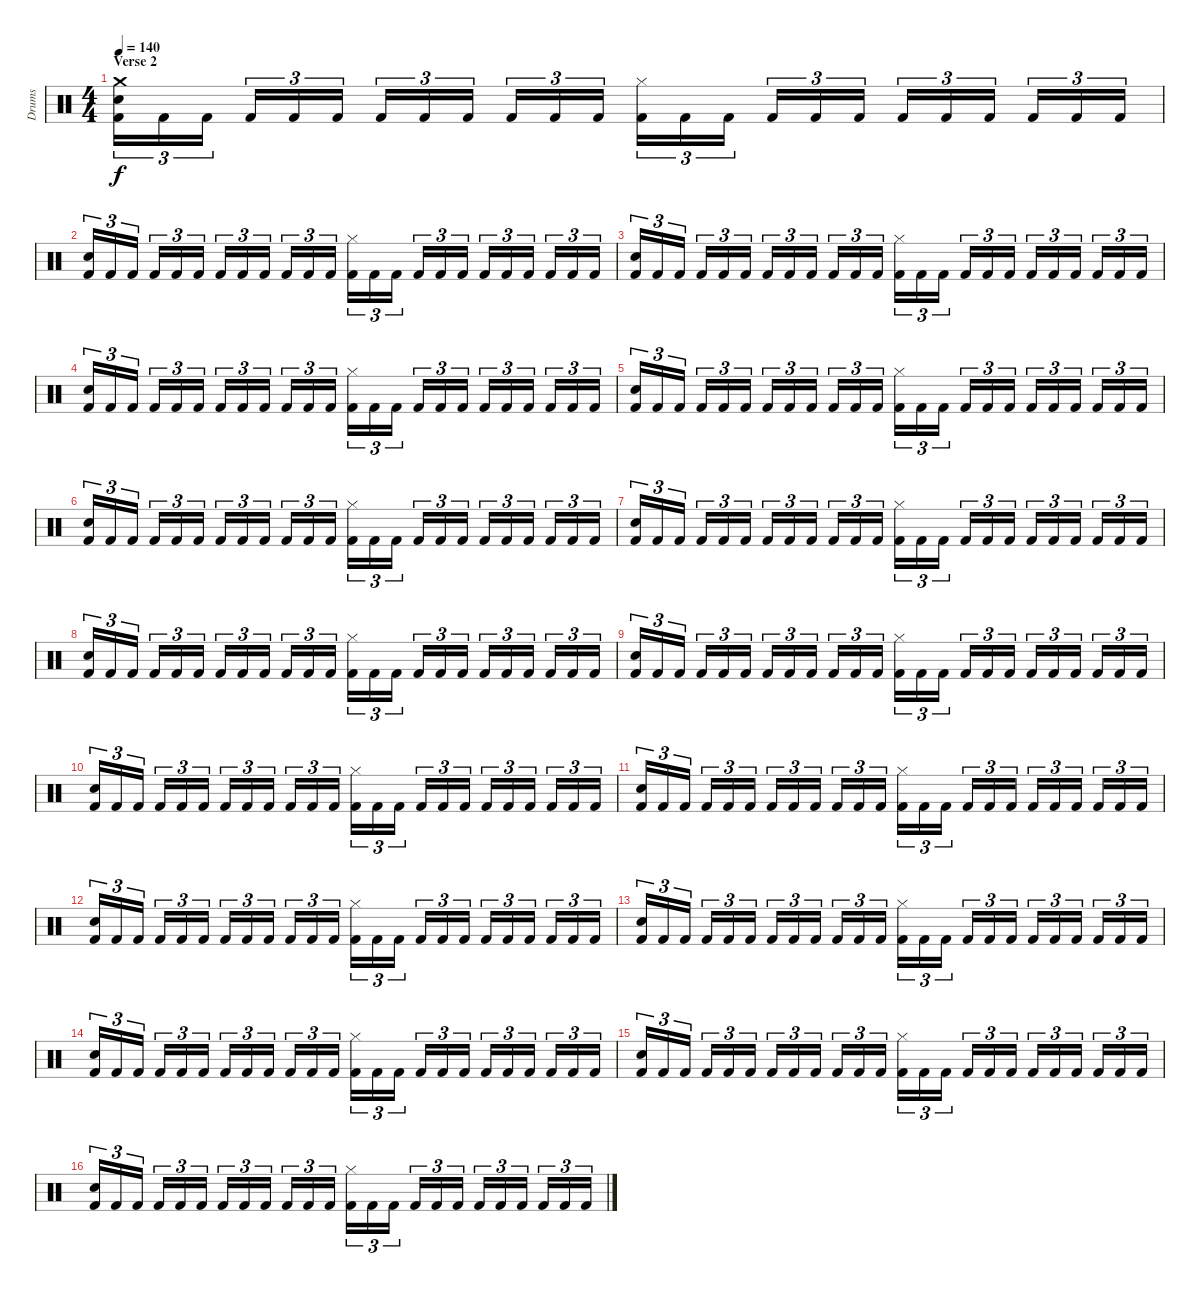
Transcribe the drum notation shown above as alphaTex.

\track ("Drums" "Drums") {instrument percussion}
\staff {score}
\articulation defaults
\ts (4 4)
\section ("" "Verse 2")
\tempo 140
\clef neutral
\ks c
("Crash medium (hit)" "Snare (hit) 2" "Kick (hit) 2").16{tu (3 2) dy f} "Kick (hit) 2".16{tu (3 2)} "Kick (hit) 2".16{tu (3 2)} "Kick (hit) 2".16{tu (3 2)} "Kick (hit) 2".16{tu (3 2)} "Kick (hit) 2".16{tu (3 2)} "Kick (hit) 2".16{tu (3 2)} "Kick (hit) 2".16{tu (3 2)} "Kick (hit) 2".16{tu (3 2)} "Kick (hit) 2".16{tu (3 2)} "Kick (hit) 2".16{tu (3 2)} "Kick (hit) 2".16{tu (3 2)} ("Hi-Hat (closed)" "Kick (hit) 2").16{tu (3 2)} "Kick (hit) 2".16{tu (3 2)} "Kick (hit) 2".16{tu (3 2)} "Kick (hit) 2".16{tu (3 2)} "Kick (hit) 2".16{tu (3 2)} "Kick (hit) 2".16{tu (3 2)} "Kick (hit) 2".16{tu (3 2)} "Kick (hit) 2".16{tu (3 2)} "Kick (hit) 2".16{tu (3 2)} "Kick (hit) 2".16{tu (3 2)} "Kick (hit) 2".16{tu (3 2)} "Kick (hit) 2".16{tu (3 2)} |
("Snare (hit) 2" "Kick (hit) 2").16{tu (3 2)} "Kick (hit) 2".16{tu (3 2)} "Kick (hit) 2".16{tu (3 2)} "Kick (hit) 2".16{tu (3 2)} "Kick (hit) 2".16{tu (3 2)} "Kick (hit) 2".16{tu (3 2)} "Kick (hit) 2".16{tu (3 2)} "Kick (hit) 2".16{tu (3 2)} "Kick (hit) 2".16{tu (3 2)} "Kick (hit) 2".16{tu (3 2)} "Kick (hit) 2".16{tu (3 2)} "Kick (hit) 2".16{tu (3 2)} ("Hi-Hat (closed)" "Kick (hit) 2").16{tu (3 2)} "Kick (hit) 2".16{tu (3 2)} "Kick (hit) 2".16{tu (3 2)} "Kick (hit) 2".16{tu (3 2)} "Kick (hit) 2".16{tu (3 2)} "Kick (hit) 2".16{tu (3 2)} "Kick (hit) 2".16{tu (3 2)} "Kick (hit) 2".16{tu (3 2)} "Kick (hit) 2".16{tu (3 2)} "Kick (hit) 2".16{tu (3 2)} "Kick (hit) 2".16{tu (3 2)} "Kick (hit) 2".16{tu (3 2)} |
("Snare (hit) 2" "Kick (hit) 2").16{tu (3 2)} "Kick (hit) 2".16{tu (3 2)} "Kick (hit) 2".16{tu (3 2)} "Kick (hit) 2".16{tu (3 2)} "Kick (hit) 2".16{tu (3 2)} "Kick (hit) 2".16{tu (3 2)} "Kick (hit) 2".16{tu (3 2)} "Kick (hit) 2".16{tu (3 2)} "Kick (hit) 2".16{tu (3 2)} "Kick (hit) 2".16{tu (3 2)} "Kick (hit) 2".16{tu (3 2)} "Kick (hit) 2".16{tu (3 2)} ("Hi-Hat (closed)" "Kick (hit) 2").16{tu (3 2)} "Kick (hit) 2".16{tu (3 2)} "Kick (hit) 2".16{tu (3 2)} "Kick (hit) 2".16{tu (3 2)} "Kick (hit) 2".16{tu (3 2)} "Kick (hit) 2".16{tu (3 2)} "Kick (hit) 2".16{tu (3 2)} "Kick (hit) 2".16{tu (3 2)} "Kick (hit) 2".16{tu (3 2)} "Kick (hit) 2".16{tu (3 2)} "Kick (hit) 2".16{tu (3 2)} "Kick (hit) 2".16{tu (3 2)} |
("Snare (hit) 2" "Kick (hit) 2").16{tu (3 2)} "Kick (hit) 2".16{tu (3 2)} "Kick (hit) 2".16{tu (3 2)} "Kick (hit) 2".16{tu (3 2)} "Kick (hit) 2".16{tu (3 2)} "Kick (hit) 2".16{tu (3 2)} "Kick (hit) 2".16{tu (3 2)} "Kick (hit) 2".16{tu (3 2)} "Kick (hit) 2".16{tu (3 2)} "Kick (hit) 2".16{tu (3 2)} "Kick (hit) 2".16{tu (3 2)} "Kick (hit) 2".16{tu (3 2)} ("Hi-Hat (closed)" "Kick (hit) 2").16{tu (3 2)} "Kick (hit) 2".16{tu (3 2)} "Kick (hit) 2".16{tu (3 2)} "Kick (hit) 2".16{tu (3 2)} "Kick (hit) 2".16{tu (3 2)} "Kick (hit) 2".16{tu (3 2)} "Kick (hit) 2".16{tu (3 2)} "Kick (hit) 2".16{tu (3 2)} "Kick (hit) 2".16{tu (3 2)} "Kick (hit) 2".16{tu (3 2)} "Kick (hit) 2".16{tu (3 2)} "Kick (hit) 2".16{tu (3 2)} |
("Snare (hit) 2" "Kick (hit) 2").16{tu (3 2)} "Kick (hit) 2".16{tu (3 2)} "Kick (hit) 2".16{tu (3 2)} "Kick (hit) 2".16{tu (3 2)} "Kick (hit) 2".16{tu (3 2)} "Kick (hit) 2".16{tu (3 2)} "Kick (hit) 2".16{tu (3 2)} "Kick (hit) 2".16{tu (3 2)} "Kick (hit) 2".16{tu (3 2)} "Kick (hit) 2".16{tu (3 2)} "Kick (hit) 2".16{tu (3 2)} "Kick (hit) 2".16{tu (3 2)} ("Hi-Hat (closed)" "Kick (hit) 2").16{tu (3 2)} "Kick (hit) 2".16{tu (3 2)} "Kick (hit) 2".16{tu (3 2)} "Kick (hit) 2".16{tu (3 2)} "Kick (hit) 2".16{tu (3 2)} "Kick (hit) 2".16{tu (3 2)} "Kick (hit) 2".16{tu (3 2)} "Kick (hit) 2".16{tu (3 2)} "Kick (hit) 2".16{tu (3 2)} "Kick (hit) 2".16{tu (3 2)} "Kick (hit) 2".16{tu (3 2)} "Kick (hit) 2".16{tu (3 2)} |
("Snare (hit) 2" "Kick (hit) 2").16{tu (3 2)} "Kick (hit) 2".16{tu (3 2)} "Kick (hit) 2".16{tu (3 2)} "Kick (hit) 2".16{tu (3 2)} "Kick (hit) 2".16{tu (3 2)} "Kick (hit) 2".16{tu (3 2)} "Kick (hit) 2".16{tu (3 2)} "Kick (hit) 2".16{tu (3 2)} "Kick (hit) 2".16{tu (3 2)} "Kick (hit) 2".16{tu (3 2)} "Kick (hit) 2".16{tu (3 2)} "Kick (hit) 2".16{tu (3 2)} ("Hi-Hat (closed)" "Kick (hit) 2").16{tu (3 2)} "Kick (hit) 2".16{tu (3 2)} "Kick (hit) 2".16{tu (3 2)} "Kick (hit) 2".16{tu (3 2)} "Kick (hit) 2".16{tu (3 2)} "Kick (hit) 2".16{tu (3 2)} "Kick (hit) 2".16{tu (3 2)} "Kick (hit) 2".16{tu (3 2)} "Kick (hit) 2".16{tu (3 2)} "Kick (hit) 2".16{tu (3 2)} "Kick (hit) 2".16{tu (3 2)} "Kick (hit) 2".16{tu (3 2)} |
("Snare (hit) 2" "Kick (hit) 2").16{tu (3 2)} "Kick (hit) 2".16{tu (3 2)} "Kick (hit) 2".16{tu (3 2)} "Kick (hit) 2".16{tu (3 2)} "Kick (hit) 2".16{tu (3 2)} "Kick (hit) 2".16{tu (3 2)} "Kick (hit) 2".16{tu (3 2)} "Kick (hit) 2".16{tu (3 2)} "Kick (hit) 2".16{tu (3 2)} "Kick (hit) 2".16{tu (3 2)} "Kick (hit) 2".16{tu (3 2)} "Kick (hit) 2".16{tu (3 2)} ("Hi-Hat (closed)" "Kick (hit) 2").16{tu (3 2)} "Kick (hit) 2".16{tu (3 2)} "Kick (hit) 2".16{tu (3 2)} "Kick (hit) 2".16{tu (3 2)} "Kick (hit) 2".16{tu (3 2)} "Kick (hit) 2".16{tu (3 2)} "Kick (hit) 2".16{tu (3 2)} "Kick (hit) 2".16{tu (3 2)} "Kick (hit) 2".16{tu (3 2)} "Kick (hit) 2".16{tu (3 2)} "Kick (hit) 2".16{tu (3 2)} "Kick (hit) 2".16{tu (3 2)} |
("Snare (hit) 2" "Kick (hit) 2").16{tu (3 2)} "Kick (hit) 2".16{tu (3 2)} "Kick (hit) 2".16{tu (3 2)} "Kick (hit) 2".16{tu (3 2)} "Kick (hit) 2".16{tu (3 2)} "Kick (hit) 2".16{tu (3 2)} "Kick (hit) 2".16{tu (3 2)} "Kick (hit) 2".16{tu (3 2)} "Kick (hit) 2".16{tu (3 2)} "Kick (hit) 2".16{tu (3 2)} "Kick (hit) 2".16{tu (3 2)} "Kick (hit) 2".16{tu (3 2)} ("Hi-Hat (closed)" "Kick (hit) 2").16{tu (3 2)} "Kick (hit) 2".16{tu (3 2)} "Kick (hit) 2".16{tu (3 2)} "Kick (hit) 2".16{tu (3 2)} "Kick (hit) 2".16{tu (3 2)} "Kick (hit) 2".16{tu (3 2)} "Kick (hit) 2".16{tu (3 2)} "Kick (hit) 2".16{tu (3 2)} "Kick (hit) 2".16{tu (3 2)} "Kick (hit) 2".16{tu (3 2)} "Kick (hit) 2".16{tu (3 2)} "Kick (hit) 2".16{tu (3 2)} |
("Snare (hit) 2" "Kick (hit) 2").16{tu (3 2)} "Kick (hit) 2".16{tu (3 2)} "Kick (hit) 2".16{tu (3 2)} "Kick (hit) 2".16{tu (3 2)} "Kick (hit) 2".16{tu (3 2)} "Kick (hit) 2".16{tu (3 2)} "Kick (hit) 2".16{tu (3 2)} "Kick (hit) 2".16{tu (3 2)} "Kick (hit) 2".16{tu (3 2)} "Kick (hit) 2".16{tu (3 2)} "Kick (hit) 2".16{tu (3 2)} "Kick (hit) 2".16{tu (3 2)} ("Hi-Hat (closed)" "Kick (hit) 2").16{tu (3 2)} "Kick (hit) 2".16{tu (3 2)} "Kick (hit) 2".16{tu (3 2)} "Kick (hit) 2".16{tu (3 2)} "Kick (hit) 2".16{tu (3 2)} "Kick (hit) 2".16{tu (3 2)} "Kick (hit) 2".16{tu (3 2)} "Kick (hit) 2".16{tu (3 2)} "Kick (hit) 2".16{tu (3 2)} "Kick (hit) 2".16{tu (3 2)} "Kick (hit) 2".16{tu (3 2)} "Kick (hit) 2".16{tu (3 2)} |
("Snare (hit) 2" "Kick (hit) 2").16{tu (3 2)} "Kick (hit) 2".16{tu (3 2)} "Kick (hit) 2".16{tu (3 2)} "Kick (hit) 2".16{tu (3 2)} "Kick (hit) 2".16{tu (3 2)} "Kick (hit) 2".16{tu (3 2)} "Kick (hit) 2".16{tu (3 2)} "Kick (hit) 2".16{tu (3 2)} "Kick (hit) 2".16{tu (3 2)} "Kick (hit) 2".16{tu (3 2)} "Kick (hit) 2".16{tu (3 2)} "Kick (hit) 2".16{tu (3 2)} ("Hi-Hat (closed)" "Kick (hit) 2").16{tu (3 2)} "Kick (hit) 2".16{tu (3 2)} "Kick (hit) 2".16{tu (3 2)} "Kick (hit) 2".16{tu (3 2)} "Kick (hit) 2".16{tu (3 2)} "Kick (hit) 2".16{tu (3 2)} "Kick (hit) 2".16{tu (3 2)} "Kick (hit) 2".16{tu (3 2)} "Kick (hit) 2".16{tu (3 2)} "Kick (hit) 2".16{tu (3 2)} "Kick (hit) 2".16{tu (3 2)} "Kick (hit) 2".16{tu (3 2)} |
("Snare (hit) 2" "Kick (hit) 2").16{tu (3 2)} "Kick (hit) 2".16{tu (3 2)} "Kick (hit) 2".16{tu (3 2)} "Kick (hit) 2".16{tu (3 2)} "Kick (hit) 2".16{tu (3 2)} "Kick (hit) 2".16{tu (3 2)} "Kick (hit) 2".16{tu (3 2)} "Kick (hit) 2".16{tu (3 2)} "Kick (hit) 2".16{tu (3 2)} "Kick (hit) 2".16{tu (3 2)} "Kick (hit) 2".16{tu (3 2)} "Kick (hit) 2".16{tu (3 2)} ("Hi-Hat (closed)" "Kick (hit) 2").16{tu (3 2)} "Kick (hit) 2".16{tu (3 2)} "Kick (hit) 2".16{tu (3 2)} "Kick (hit) 2".16{tu (3 2)} "Kick (hit) 2".16{tu (3 2)} "Kick (hit) 2".16{tu (3 2)} "Kick (hit) 2".16{tu (3 2)} "Kick (hit) 2".16{tu (3 2)} "Kick (hit) 2".16{tu (3 2)} "Kick (hit) 2".16{tu (3 2)} "Kick (hit) 2".16{tu (3 2)} "Kick (hit) 2".16{tu (3 2)} |
("Snare (hit) 2" "Kick (hit) 2").16{tu (3 2)} "Kick (hit) 2".16{tu (3 2)} "Kick (hit) 2".16{tu (3 2)} "Kick (hit) 2".16{tu (3 2)} "Kick (hit) 2".16{tu (3 2)} "Kick (hit) 2".16{tu (3 2)} "Kick (hit) 2".16{tu (3 2)} "Kick (hit) 2".16{tu (3 2)} "Kick (hit) 2".16{tu (3 2)} "Kick (hit) 2".16{tu (3 2)} "Kick (hit) 2".16{tu (3 2)} "Kick (hit) 2".16{tu (3 2)} ("Hi-Hat (closed)" "Kick (hit) 2").16{tu (3 2)} "Kick (hit) 2".16{tu (3 2)} "Kick (hit) 2".16{tu (3 2)} "Kick (hit) 2".16{tu (3 2)} "Kick (hit) 2".16{tu (3 2)} "Kick (hit) 2".16{tu (3 2)} "Kick (hit) 2".16{tu (3 2)} "Kick (hit) 2".16{tu (3 2)} "Kick (hit) 2".16{tu (3 2)} "Kick (hit) 2".16{tu (3 2)} "Kick (hit) 2".16{tu (3 2)} "Kick (hit) 2".16{tu (3 2)} |
("Snare (hit) 2" "Kick (hit) 2").16{tu (3 2)} "Kick (hit) 2".16{tu (3 2)} "Kick (hit) 2".16{tu (3 2)} "Kick (hit) 2".16{tu (3 2)} "Kick (hit) 2".16{tu (3 2)} "Kick (hit) 2".16{tu (3 2)} "Kick (hit) 2".16{tu (3 2)} "Kick (hit) 2".16{tu (3 2)} "Kick (hit) 2".16{tu (3 2)} "Kick (hit) 2".16{tu (3 2)} "Kick (hit) 2".16{tu (3 2)} "Kick (hit) 2".16{tu (3 2)} ("Hi-Hat (closed)" "Kick (hit) 2").16{tu (3 2)} "Kick (hit) 2".16{tu (3 2)} "Kick (hit) 2".16{tu (3 2)} "Kick (hit) 2".16{tu (3 2)} "Kick (hit) 2".16{tu (3 2)} "Kick (hit) 2".16{tu (3 2)} "Kick (hit) 2".16{tu (3 2)} "Kick (hit) 2".16{tu (3 2)} "Kick (hit) 2".16{tu (3 2)} "Kick (hit) 2".16{tu (3 2)} "Kick (hit) 2".16{tu (3 2)} "Kick (hit) 2".16{tu (3 2)} |
("Snare (hit) 2" "Kick (hit) 2").16{tu (3 2)} "Kick (hit) 2".16{tu (3 2)} "Kick (hit) 2".16{tu (3 2)} "Kick (hit) 2".16{tu (3 2)} "Kick (hit) 2".16{tu (3 2)} "Kick (hit) 2".16{tu (3 2)} "Kick (hit) 2".16{tu (3 2)} "Kick (hit) 2".16{tu (3 2)} "Kick (hit) 2".16{tu (3 2)} "Kick (hit) 2".16{tu (3 2)} "Kick (hit) 2".16{tu (3 2)} "Kick (hit) 2".16{tu (3 2)} ("Hi-Hat (closed)" "Kick (hit) 2").16{tu (3 2)} "Kick (hit) 2".16{tu (3 2)} "Kick (hit) 2".16{tu (3 2)} "Kick (hit) 2".16{tu (3 2)} "Kick (hit) 2".16{tu (3 2)} "Kick (hit) 2".16{tu (3 2)} "Kick (hit) 2".16{tu (3 2)} "Kick (hit) 2".16{tu (3 2)} "Kick (hit) 2".16{tu (3 2)} "Kick (hit) 2".16{tu (3 2)} "Kick (hit) 2".16{tu (3 2)} "Kick (hit) 2".16{tu (3 2)} |
("Snare (hit) 2" "Kick (hit) 2").16{tu (3 2)} "Kick (hit) 2".16{tu (3 2)} "Kick (hit) 2".16{tu (3 2)} "Kick (hit) 2".16{tu (3 2)} "Kick (hit) 2".16{tu (3 2)} "Kick (hit) 2".16{tu (3 2)} "Kick (hit) 2".16{tu (3 2)} "Kick (hit) 2".16{tu (3 2)} "Kick (hit) 2".16{tu (3 2)} "Kick (hit) 2".16{tu (3 2)} "Kick (hit) 2".16{tu (3 2)} "Kick (hit) 2".16{tu (3 2)} ("Hi-Hat (closed)" "Kick (hit) 2").16{tu (3 2)} "Kick (hit) 2".16{tu (3 2)} "Kick (hit) 2".16{tu (3 2)} "Kick (hit) 2".16{tu (3 2)} "Kick (hit) 2".16{tu (3 2)} "Kick (hit) 2".16{tu (3 2)} "Kick (hit) 2".16{tu (3 2)} "Kick (hit) 2".16{tu (3 2)} "Kick (hit) 2".16{tu (3 2)} "Kick (hit) 2".16{tu (3 2)} "Kick (hit) 2".16{tu (3 2)} "Kick (hit) 2".16{tu (3 2)} |
("Snare (hit) 2" "Kick (hit) 2").16{tu (3 2)} "Kick (hit) 2".16{tu (3 2)} "Kick (hit) 2".16{tu (3 2)} "Kick (hit) 2".16{tu (3 2)} "Kick (hit) 2".16{tu (3 2)} "Kick (hit) 2".16{tu (3 2)} "Kick (hit) 2".16{tu (3 2)} "Kick (hit) 2".16{tu (3 2)} "Kick (hit) 2".16{tu (3 2)} "Kick (hit) 2".16{tu (3 2)} "Kick (hit) 2".16{tu (3 2)} "Kick (hit) 2".16{tu (3 2)} ("Hi-Hat (closed)" "Kick (hit) 2").16{tu (3 2)} "Kick (hit) 2".16{tu (3 2)} "Kick (hit) 2".16{tu (3 2)} "Kick (hit) 2".16{tu (3 2)} "Kick (hit) 2".16{tu (3 2)} "Kick (hit) 2".16{tu (3 2)} "Kick (hit) 2".16{tu (3 2)} "Kick (hit) 2".16{tu (3 2)} "Kick (hit) 2".16{tu (3 2)} "Kick (hit) 2".16{tu (3 2)} "Kick (hit) 2".16{tu (3 2)} "Kick (hit) 2".16{tu (3 2)}
